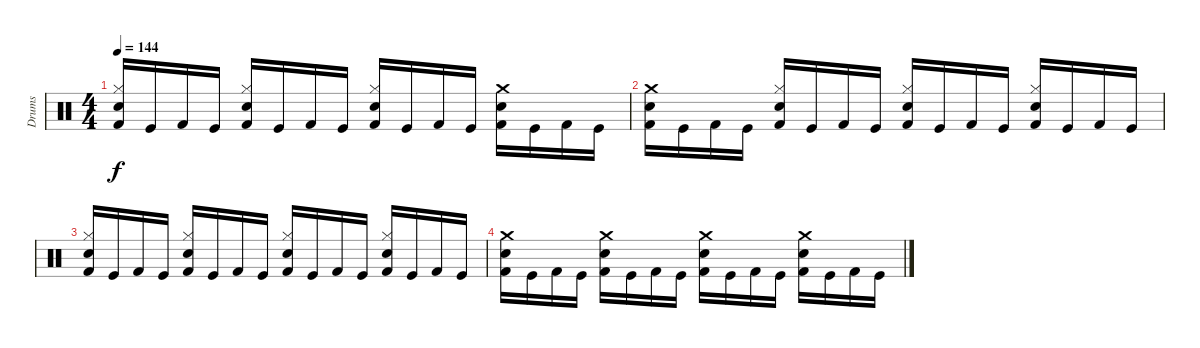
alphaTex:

\track ("Drums" "Drums") {instrument percussion}
\staff {score}
\articulation defaults
\ts (4 4)
\tempo 144
\clef neutral
\ks c
("Snare (hit) 2" "Hi-Hat (closed)" "Kick (hit) 2").16{dy f} "Kick (hit)".16 "Kick (hit) 2".16 "Kick (hit)".16 ("Snare (hit) 2" "Hi-Hat (closed)" "Kick (hit) 2").16 "Kick (hit)".16 "Kick (hit) 2".16 "Kick (hit)".16 ("Snare (hit) 2" "Hi-Hat (closed)" "Kick (hit) 2").16 "Kick (hit)".16 "Kick (hit) 2".16 "Kick (hit)".16 ("Crash medium (hit)" "Snare (hit) 2" "Kick (hit) 2").16 "Kick (hit)".16 "Kick (hit) 2".16 "Kick (hit)".16 |
("Snare (hit) 2" "Crash medium (hit)" "Kick (hit) 2").16 "Kick (hit)".16 "Kick (hit) 2".16 "Kick (hit)".16 ("Hi-Hat (closed)" "Snare (hit) 2" "Kick (hit) 2").16 "Kick (hit)".16 "Kick (hit) 2".16 "Kick (hit)".16 ("Hi-Hat (closed)" "Snare (hit) 2" "Kick (hit) 2").16 "Kick (hit)".16 "Kick (hit) 2".16 "Kick (hit)".16 ("Hi-Hat (closed)" "Snare (hit) 2" "Kick (hit) 2").16 "Kick (hit)".16 "Kick (hit) 2".16 "Kick (hit)".16 |
("Snare (hit) 2" "Hi-Hat (closed)" "Kick (hit) 2").16 "Kick (hit)".16 "Kick (hit) 2".16 "Kick (hit)".16 ("Snare (hit) 2" "Hi-Hat (closed)" "Kick (hit) 2").16 "Kick (hit)".16 "Kick (hit) 2".16 "Kick (hit)".16 ("Snare (hit) 2" "Hi-Hat (closed)" "Kick (hit) 2").16 "Kick (hit)".16 "Kick (hit) 2".16 "Kick (hit)".16 ("Snare (hit) 2" "Hi-Hat (closed)" "Kick (hit) 2").16 "Kick (hit)".16 "Kick (hit) 2".16 "Kick (hit)".16 |
("Crash medium (hit)" "Snare (hit) 2" "Kick (hit) 2").16 "Kick (hit)".16 "Kick (hit) 2".16 "Kick (hit)".16 ("Crash medium (hit)" "Snare (hit) 2" "Kick (hit) 2").16 "Kick (hit)".16 "Kick (hit) 2".16 "Kick (hit)".16 ("Crash medium (hit)" "Snare (hit) 2" "Kick (hit) 2").16 "Kick (hit)".16 "Kick (hit) 2".16 "Kick (hit)".16 ("Crash medium (hit)" "Snare (hit) 2" "Kick (hit) 2").16 "Kick (hit)".16 "Kick (hit) 2".16 "Kick (hit)".16
